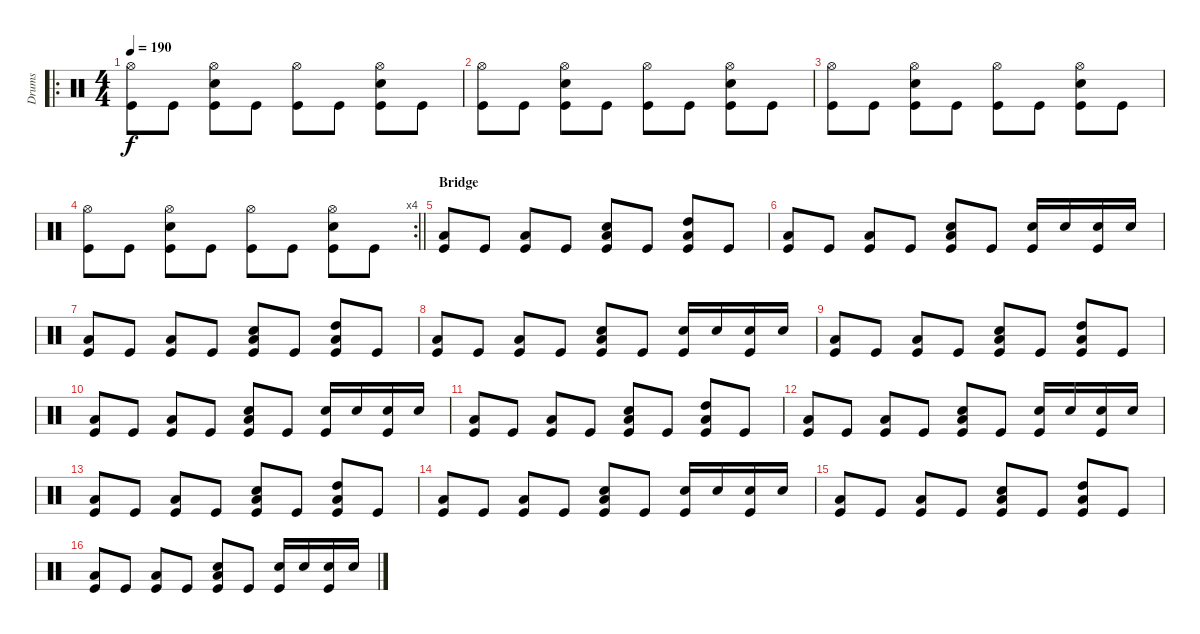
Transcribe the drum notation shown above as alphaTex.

\track ("Drums" "Drums") {instrument percussion}
\staff {score}
\articulation defaults
\ro
\ts (4 4)
\tempo 190
\clef neutral
\ks c
("Hi-Hat (open)" "Kick (hit)").8{dy f} "Kick (hit)".8 ("Hi-Hat (open)" "Snare (hit) 2" "Kick (hit)").8 "Kick (hit)".8 ("Hi-Hat (open)" "Kick (hit)").8 "Kick (hit)".8 ("Hi-Hat (open)" "Snare (hit) 2" "Kick (hit)").8 "Kick (hit)".8 |
("Hi-Hat (open)" "Kick (hit)").8 "Kick (hit)".8 ("Hi-Hat (open)" "Snare (hit) 2" "Kick (hit)").8 "Kick (hit)".8 ("Hi-Hat (open)" "Kick (hit)").8 "Kick (hit)".8 ("Hi-Hat (open)" "Snare (hit) 2" "Kick (hit)").8 "Kick (hit)".8 |
("Hi-Hat (open)" "Kick (hit)").8 "Kick (hit)".8 ("Hi-Hat (open)" "Snare (hit) 2" "Kick (hit)").8 "Kick (hit)".8 ("Hi-Hat (open)" "Kick (hit)").8 "Kick (hit)".8 ("Hi-Hat (open)" "Snare (hit) 2" "Kick (hit)").8 "Kick (hit)".8 |
\rc 4
\barLineRight lightlight
("Hi-Hat (open)" "Kick (hit)").8 "Kick (hit)".8 ("Hi-Hat (open)" "Snare (hit) 2" "Kick (hit)").8 "Kick (hit)".8 ("Hi-Hat (open)" "Kick (hit)").8 "Kick (hit)".8 ("Hi-Hat (open)" "Snare (hit) 2" "Kick (hit)").8 "Kick (hit)".8 |
\section ("" "Bridge")
("Low Floor Tom (hit)" "Kick (hit)").8 "Kick (hit)".8 ("Low Floor Tom (hit)" "Kick (hit)").8 "Kick (hit)".8 ("Snare (hit) 2" "Low Floor Tom (hit)" "Kick (hit)").8 "Kick (hit)".8 ("High Tom (hit)" "Low Floor Tom (hit)" "Kick (hit)").8 "Kick (hit)".8 |
("Low Floor Tom (hit)" "Kick (hit)").8 "Kick (hit)".8 ("Low Floor Tom (hit)" "Kick (hit)").8 "Kick (hit)".8 ("Snare (hit) 2" "Low Floor Tom (hit)" "Kick (hit)").8 "Kick (hit)".8 ("Snare (hit) 2" "Kick (hit)").16 "Snare (hit) 2".16 ("Snare (hit) 2" "Kick (hit)").16 "Snare (hit) 2".16 |
("Low Floor Tom (hit)" "Kick (hit)").8 "Kick (hit)".8 ("Low Floor Tom (hit)" "Kick (hit)").8 "Kick (hit)".8 ("Snare (hit) 2" "Low Floor Tom (hit)" "Kick (hit)").8 "Kick (hit)".8 ("High Tom (hit)" "Low Floor Tom (hit)" "Kick (hit)").8 "Kick (hit)".8 |
("Low Floor Tom (hit)" "Kick (hit)").8 "Kick (hit)".8 ("Low Floor Tom (hit)" "Kick (hit)").8 "Kick (hit)".8 ("Snare (hit) 2" "Low Floor Tom (hit)" "Kick (hit)").8 "Kick (hit)".8 ("Snare (hit) 2" "Kick (hit)").16 "Snare (hit) 2".16 ("Snare (hit) 2" "Kick (hit)").16 "Snare (hit) 2".16 |
("Low Floor Tom (hit)" "Kick (hit)").8 "Kick (hit)".8 ("Low Floor Tom (hit)" "Kick (hit)").8 "Kick (hit)".8 ("Snare (hit) 2" "Low Floor Tom (hit)" "Kick (hit)").8 "Kick (hit)".8 ("High Tom (hit)" "Low Floor Tom (hit)" "Kick (hit)").8 "Kick (hit)".8 |
("Low Floor Tom (hit)" "Kick (hit)").8 "Kick (hit)".8 ("Low Floor Tom (hit)" "Kick (hit)").8 "Kick (hit)".8 ("Snare (hit) 2" "Low Floor Tom (hit)" "Kick (hit)").8 "Kick (hit)".8 ("Snare (hit) 2" "Kick (hit)").16 "Snare (hit) 2".16 ("Snare (hit) 2" "Kick (hit)").16 "Snare (hit) 2".16 |
("Low Floor Tom (hit)" "Kick (hit)").8 "Kick (hit)".8 ("Low Floor Tom (hit)" "Kick (hit)").8 "Kick (hit)".8 ("Snare (hit) 2" "Low Floor Tom (hit)" "Kick (hit)").8 "Kick (hit)".8 ("High Tom (hit)" "Low Floor Tom (hit)" "Kick (hit)").8 "Kick (hit)".8 |
("Low Floor Tom (hit)" "Kick (hit)").8 "Kick (hit)".8 ("Low Floor Tom (hit)" "Kick (hit)").8 "Kick (hit)".8 ("Snare (hit) 2" "Low Floor Tom (hit)" "Kick (hit)").8 "Kick (hit)".8 ("Snare (hit) 2" "Kick (hit)").16 "Snare (hit) 2".16 ("Snare (hit) 2" "Kick (hit)").16 "Snare (hit) 2".16 |
("Low Floor Tom (hit)" "Kick (hit)").8 "Kick (hit)".8 ("Low Floor Tom (hit)" "Kick (hit)").8 "Kick (hit)".8 ("Snare (hit) 2" "Low Floor Tom (hit)" "Kick (hit)").8 "Kick (hit)".8 ("High Tom (hit)" "Low Floor Tom (hit)" "Kick (hit)").8 "Kick (hit)".8 |
("Low Floor Tom (hit)" "Kick (hit)").8 "Kick (hit)".8 ("Low Floor Tom (hit)" "Kick (hit)").8 "Kick (hit)".8 ("Snare (hit) 2" "Low Floor Tom (hit)" "Kick (hit)").8 "Kick (hit)".8 ("Snare (hit) 2" "Kick (hit)").16 "Snare (hit) 2".16 ("Snare (hit) 2" "Kick (hit)").16 "Snare (hit) 2".16 |
("Low Floor Tom (hit)" "Kick (hit)").8 "Kick (hit)".8 ("Low Floor Tom (hit)" "Kick (hit)").8 "Kick (hit)".8 ("Snare (hit) 2" "Low Floor Tom (hit)" "Kick (hit)").8 "Kick (hit)".8 ("High Tom (hit)" "Low Floor Tom (hit)" "Kick (hit)").8 "Kick (hit)".8 |
("Low Floor Tom (hit)" "Kick (hit)").8 "Kick (hit)".8 ("Low Floor Tom (hit)" "Kick (hit)").8 "Kick (hit)".8 ("Snare (hit) 2" "Low Floor Tom (hit)" "Kick (hit)").8 "Kick (hit)".8 ("Snare (hit) 2" "Kick (hit)").16 "Snare (hit) 2".16 ("Snare (hit) 2" "Kick (hit)").16 "Snare (hit) 2".16
